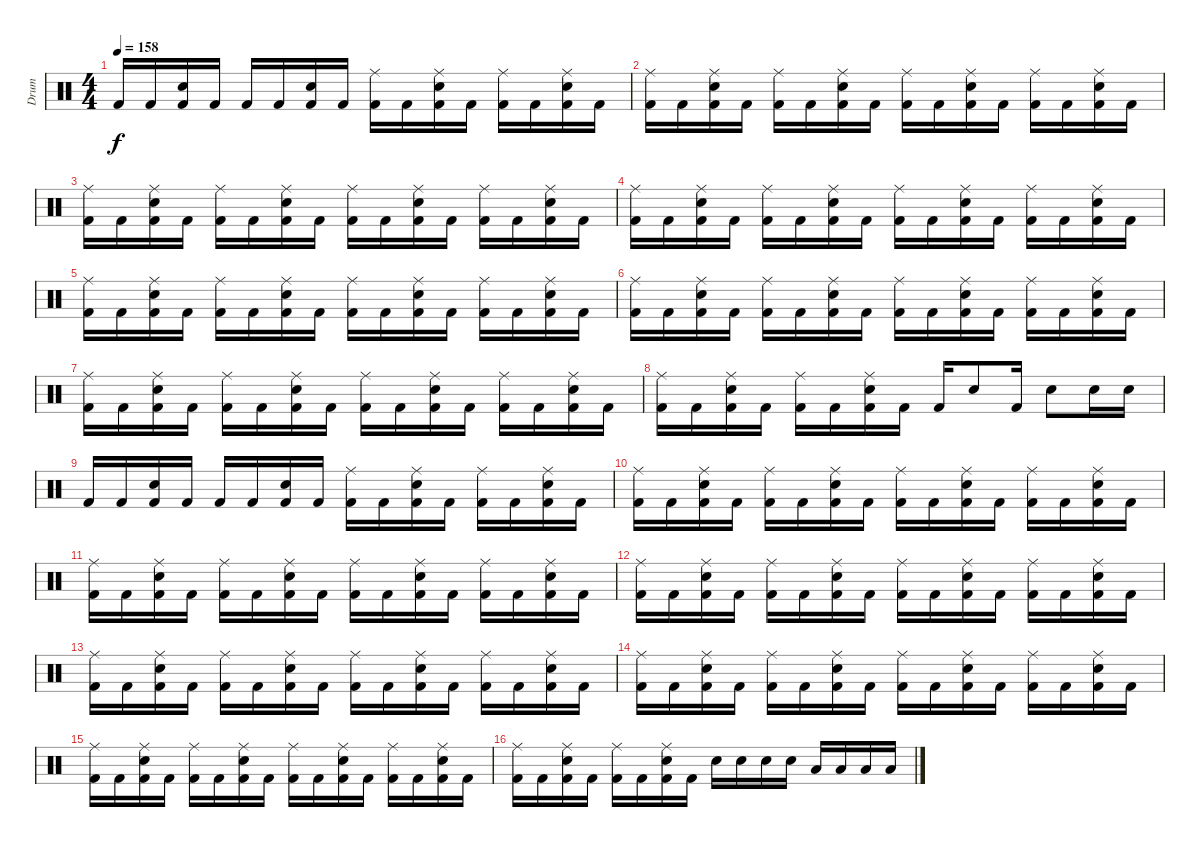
\track ("Drum" "Drum") {instrument percussion}
\staff {score}
\articulation defaults
\ts (4 4)
\tempo 158
\clef neutral
\ks c "Kick (hit) 2".16{dy f} "Kick (hit) 2".16
("Electric Snare (hit)" "Kick (hit) 2").16 "Kick (hit) 2".16 "Kick (hit) 2".16 "Kick (hit) 2".16 ("Electric Snare (hit)" "Kick (hit) 2").16 "Kick (hit) 2".16 ("Kick (hit) 2" "Ride (middle)").16 "Kick (hit) 2".16 ("Electric Snare (hit)" "Kick (hit) 2" "Ride (middle)").16 "Kick (hit) 2".16 ("Kick (hit) 2" "Ride (middle)").16 "Kick (hit) 2".16 ("Electric Snare (hit)" "Kick (hit) 2" "Ride (middle)").16 "Kick (hit) 2".16 |
("Kick (hit) 2" "Ride (middle)").16 "Kick (hit) 2".16 ("Electric Snare (hit)" "Kick (hit) 2" "Ride (middle)").16 "Kick (hit) 2".16 ("Kick (hit) 2" "Ride (middle)").16 "Kick (hit) 2".16 ("Electric Snare (hit)" "Kick (hit) 2" "Ride (middle)").16 "Kick (hit) 2".16 ("Kick (hit) 2" "Ride (middle)").16 "Kick (hit) 2".16 ("Electric Snare (hit)" "Kick (hit) 2" "Ride (middle)").16 "Kick (hit) 2".16 ("Kick (hit) 2" "Ride (middle)").16 "Kick (hit) 2".16 ("Electric Snare (hit)" "Kick (hit) 2" "Ride (middle)").16 "Kick (hit) 2".16 |
("Kick (hit) 2" "Ride (middle)").16 "Kick (hit) 2".16 ("Electric Snare (hit)" "Kick (hit) 2" "Ride (middle)").16 "Kick (hit) 2".16 ("Kick (hit) 2" "Ride (middle)").16 "Kick (hit) 2".16 ("Electric Snare (hit)" "Kick (hit) 2" "Ride (middle)").16 "Kick (hit) 2".16 ("Kick (hit) 2" "Ride (middle)").16 "Kick (hit) 2".16 ("Electric Snare (hit)" "Kick (hit) 2" "Ride (middle)").16 "Kick (hit) 2".16 ("Kick (hit) 2" "Ride (middle)").16 "Kick (hit) 2".16 ("Electric Snare (hit)" "Kick (hit) 2" "Ride (middle)").16 "Kick (hit) 2".16 |
("Kick (hit) 2" "Ride (middle)").16 "Kick (hit) 2".16 ("Electric Snare (hit)" "Kick (hit) 2" "Ride (middle)").16 "Kick (hit) 2".16 ("Kick (hit) 2" "Ride (middle)").16 "Kick (hit) 2".16 ("Electric Snare (hit)" "Kick (hit) 2" "Ride (middle)").16 "Kick (hit) 2".16 ("Kick (hit) 2" "Ride (middle)").16 "Kick (hit) 2".16 ("Electric Snare (hit)" "Kick (hit) 2" "Ride (middle)").16 "Kick (hit) 2".16 ("Kick (hit) 2" "Ride (middle)").16 "Kick (hit) 2".16 ("Electric Snare (hit)" "Kick (hit) 2" "Ride (middle)").16 "Kick (hit) 2".16 |
("Kick (hit) 2" "Ride (middle)").16 "Kick (hit) 2".16 ("Electric Snare (hit)" "Kick (hit) 2" "Ride (middle)").16 "Kick (hit) 2".16 ("Kick (hit) 2" "Ride (middle)").16 "Kick (hit) 2".16 ("Electric Snare (hit)" "Kick (hit) 2" "Ride (middle)").16 "Kick (hit) 2".16 ("Kick (hit) 2" "Ride (middle)").16 "Kick (hit) 2".16 ("Electric Snare (hit)" "Kick (hit) 2" "Ride (middle)").16 "Kick (hit) 2".16 ("Kick (hit) 2" "Ride (middle)").16 "Kick (hit) 2".16 ("Electric Snare (hit)" "Kick (hit) 2" "Ride (middle)").16 "Kick (hit) 2".16 |
("Kick (hit) 2" "Ride (middle)").16 "Kick (hit) 2".16 ("Electric Snare (hit)" "Kick (hit) 2" "Ride (middle)").16 "Kick (hit) 2".16 ("Kick (hit) 2" "Ride (middle)").16 "Kick (hit) 2".16 ("Electric Snare (hit)" "Kick (hit) 2" "Ride (middle)").16 "Kick (hit) 2".16 ("Kick (hit) 2" "Ride (middle)").16 "Kick (hit) 2".16 ("Electric Snare (hit)" "Kick (hit) 2" "Ride (middle)").16 "Kick (hit) 2".16 ("Kick (hit) 2" "Ride (middle)").16 "Kick (hit) 2".16 ("Electric Snare (hit)" "Kick (hit) 2" "Ride (middle)").16 "Kick (hit) 2".16 |
("Kick (hit) 2" "Ride (middle)").16 "Kick (hit) 2".16 ("Electric Snare (hit)" "Kick (hit) 2" "Ride (middle)").16 "Kick (hit) 2".16 ("Kick (hit) 2" "Ride (middle)").16 "Kick (hit) 2".16 ("Electric Snare (hit)" "Kick (hit) 2" "Ride (middle)").16 "Kick (hit) 2".16 ("Kick (hit) 2" "Ride (middle)").16 "Kick (hit) 2".16 ("Electric Snare (hit)" "Kick (hit) 2" "Ride (middle)").16 "Kick (hit) 2".16 ("Kick (hit) 2" "Ride (middle)").16 "Kick (hit) 2".16 ("Electric Snare (hit)" "Kick (hit) 2" "Ride (middle)").16 "Kick (hit) 2".16 |
("Kick (hit) 2" "Ride (middle)").16 "Kick (hit) 2".16 ("Electric Snare (hit)" "Kick (hit) 2" "Ride (middle)").16 "Kick (hit) 2".16 ("Kick (hit) 2" "Ride (middle)").16 "Kick (hit) 2".16 ("Electric Snare (hit)" "Kick (hit) 2" "Ride (middle)").16 "Kick (hit) 2".16 "Kick (hit) 2".16 "Electric Snare (hit)".8 "Kick (hit) 2".16 "Electric Snare (hit)".8 "Electric Snare (hit)".16 "Electric Snare (hit)".16 |
"Kick (hit) 2".16 "Kick (hit) 2".16 ("Electric Snare (hit)" "Kick (hit) 2").16 "Kick (hit) 2".16 "Kick (hit) 2".16 "Kick (hit) 2".16 ("Electric Snare (hit)" "Kick (hit) 2").16 "Kick (hit) 2".16 ("Kick (hit) 2" "Ride (middle)").16 "Kick (hit) 2".16 ("Electric Snare (hit)" "Kick (hit) 2" "Ride (middle)").16 "Kick (hit) 2".16 ("Kick (hit) 2" "Ride (middle)").16 "Kick (hit) 2".16 ("Electric Snare (hit)" "Kick (hit) 2" "Ride (middle)").16 "Kick (hit) 2".16 |
("Kick (hit) 2" "Ride (middle)").16 "Kick (hit) 2".16 ("Electric Snare (hit)" "Kick (hit) 2" "Ride (middle)").16 "Kick (hit) 2".16 ("Kick (hit) 2" "Ride (middle)").16 "Kick (hit) 2".16 ("Electric Snare (hit)" "Kick (hit) 2" "Ride (middle)").16 "Kick (hit) 2".16 ("Kick (hit) 2" "Ride (middle)").16 "Kick (hit) 2".16 ("Electric Snare (hit)" "Kick (hit) 2" "Ride (middle)").16 "Kick (hit) 2".16 ("Kick (hit) 2" "Ride (middle)").16 "Kick (hit) 2".16 ("Electric Snare (hit)" "Kick (hit) 2" "Ride (middle)").16 "Kick (hit) 2".16 |
("Kick (hit) 2" "Ride (middle)").16 "Kick (hit) 2".16 ("Electric Snare (hit)" "Kick (hit) 2" "Ride (middle)").16 "Kick (hit) 2".16 ("Kick (hit) 2" "Ride (middle)").16 "Kick (hit) 2".16 ("Electric Snare (hit)" "Kick (hit) 2" "Ride (middle)").16 "Kick (hit) 2".16 ("Kick (hit) 2" "Ride (middle)").16 "Kick (hit) 2".16 ("Electric Snare (hit)" "Kick (hit) 2" "Ride (middle)").16 "Kick (hit) 2".16 ("Kick (hit) 2" "Ride (middle)").16 "Kick (hit) 2".16 ("Electric Snare (hit)" "Kick (hit) 2" "Ride (middle)").16 "Kick (hit) 2".16 |
("Kick (hit) 2" "Ride (middle)").16 "Kick (hit) 2".16 ("Electric Snare (hit)" "Kick (hit) 2" "Ride (middle)").16 "Kick (hit) 2".16 ("Kick (hit) 2" "Ride (middle)").16 "Kick (hit) 2".16 ("Electric Snare (hit)" "Kick (hit) 2" "Ride (middle)").16 "Kick (hit) 2".16 ("Kick (hit) 2" "Ride (middle)").16 "Kick (hit) 2".16 ("Electric Snare (hit)" "Kick (hit) 2" "Ride (middle)").16 "Kick (hit) 2".16 ("Kick (hit) 2" "Ride (middle)").16 "Kick (hit) 2".16 ("Electric Snare (hit)" "Kick (hit) 2" "Ride (middle)").16 "Kick (hit) 2".16 |
("Kick (hit) 2" "Ride (middle)").16 "Kick (hit) 2".16 ("Electric Snare (hit)" "Kick (hit) 2" "Ride (middle)").16 "Kick (hit) 2".16 ("Kick (hit) 2" "Ride (middle)").16 "Kick (hit) 2".16 ("Electric Snare (hit)" "Kick (hit) 2" "Ride (middle)").16 "Kick (hit) 2".16 ("Kick (hit) 2" "Ride (middle)").16 "Kick (hit) 2".16 ("Electric Snare (hit)" "Kick (hit) 2" "Ride (middle)").16 "Kick (hit) 2".16 ("Kick (hit) 2" "Ride (middle)").16 "Kick (hit) 2".16 ("Electric Snare (hit)" "Kick (hit) 2" "Ride (middle)").16 "Kick (hit) 2".16 |
("Kick (hit) 2" "Ride (middle)").16 "Kick (hit) 2".16 ("Electric Snare (hit)" "Kick (hit) 2" "Ride (middle)").16 "Kick (hit) 2".16 ("Kick (hit) 2" "Ride (middle)").16 "Kick (hit) 2".16 ("Electric Snare (hit)" "Kick (hit) 2" "Ride (middle)").16 "Kick (hit) 2".16 ("Kick (hit) 2" "Ride (middle)").16 "Kick (hit) 2".16 ("Electric Snare (hit)" "Kick (hit) 2" "Ride (middle)").16 "Kick (hit) 2".16 ("Kick (hit) 2" "Ride (middle)").16 "Kick (hit) 2".16 ("Electric Snare (hit)" "Kick (hit) 2" "Ride (middle)").16 "Kick (hit) 2".16 |
("Kick (hit) 2" "Ride (middle)").16 "Kick (hit) 2".16 ("Electric Snare (hit)" "Kick (hit) 2" "Ride (middle)").16 "Kick (hit) 2".16 ("Kick (hit) 2" "Ride (middle)").16 "Kick (hit) 2".16 ("Electric Snare (hit)" "Kick (hit) 2" "Ride (middle)").16 "Kick (hit) 2".16 ("Kick (hit) 2" "Ride (middle)").16 "Kick (hit) 2".16 ("Electric Snare (hit)" "Kick (hit) 2" "Ride (middle)").16 "Kick (hit) 2".16 ("Kick (hit) 2" "Ride (middle)").16 "Kick (hit) 2".16 ("Electric Snare (hit)" "Kick (hit) 2" "Ride (middle)").16 "Kick (hit) 2".16 |
("Kick (hit) 2" "Ride (middle)").16 "Kick (hit) 2".16 ("Electric Snare (hit)" "Kick (hit) 2" "Ride (middle)").16 "Kick (hit) 2".16 ("Kick (hit) 2" "Ride (middle)").16 "Kick (hit) 2".16 ("Electric Snare (hit)" "Kick (hit) 2" "Ride (middle)").16 "Kick (hit) 2".16 "Electric Snare (hit)".16 "Electric Snare (hit)".16 "Electric Snare (hit)".16 "Electric Snare (hit)".16 "Low Floor Tom (hit)".16 "Low Floor Tom (hit)".16 "Low Floor Tom (hit)".16 "Low Floor Tom (hit)".16
